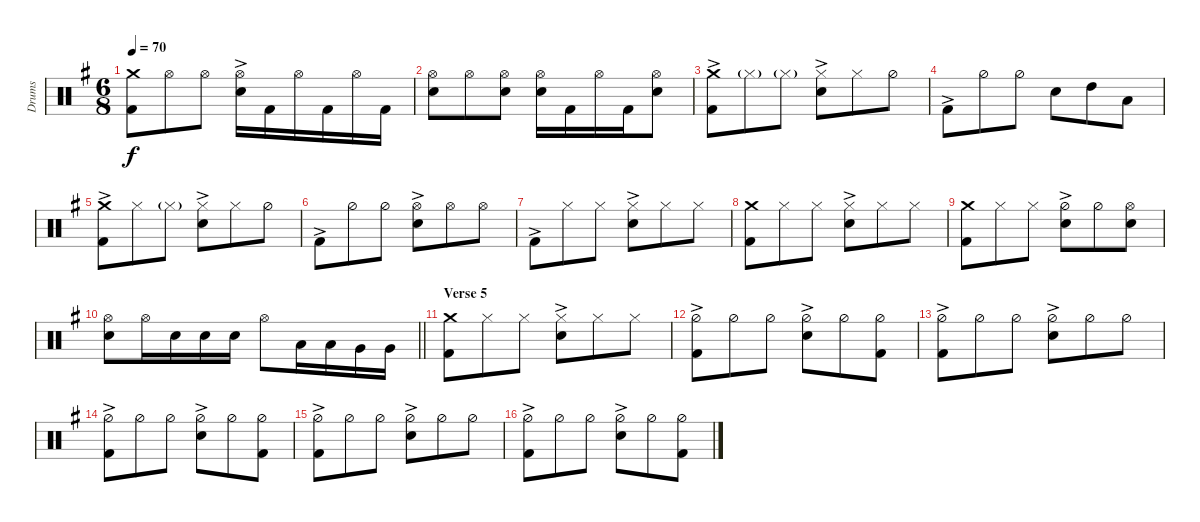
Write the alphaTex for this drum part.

\track ("Drums" "Drums") {instrument percussion}
\staff {score}
\articulation defaults
\ts (6 8)
\tempo 70
\clef neutral
\ks g
("Crash medium (hit)" "Kick (hit) 2").8{dy f} "Hi-Hat (open)".8 "Hi-Hat (open)".8 ("Hi-Hat (open)"{ac} "Snare (hit) 2").16 "Kick (hit) 2".16 "Hi-Hat (open)".16 "Kick (hit) 2".16 "Hi-Hat (open)".16 "Kick (hit) 2".16 |
("Hi-Hat (open)" "Snare (hit) 2").8 "Hi-Hat (open)".8 ("Hi-Hat (open)" "Snare (hit) 2").8 ("Hi-Hat (open)" "Snare (hit) 2").16 "Kick (hit) 2".16 "Hi-Hat (open)".16 "Kick (hit) 2".16 ("Hi-Hat (open)" "Snare (hit) 2").8 |
("Crash medium (hit)" "Kick (hit) 2"{ac}).8 "Hi-Hat (closed)"{g}.8 "Hi-Hat (closed)"{g}.8 ("Hi-Hat (closed)"{ac} "Snare (hit) 2").8 "Hi-Hat (closed)".8 "Hi-Hat (half)".8 |
"Kick (hit) 2"{ac}.8 "Hi-Hat (half)".8 "Hi-Hat (half)".8 "Snare (hit) 2".8 "High Tom (hit)".8 "Low Tom (hit)".8 |
("Crash medium (hit)"{ac} "Kick (hit) 2").8 "Hi-Hat (closed)".8 "Hi-Hat (closed)"{g}.8 ("Hi-Hat (closed)"{ac} "Snare (hit) 2").8 "Hi-Hat (closed)".8 "Hi-Hat (half)".8 |
"Kick (hit) 2"{ac}.8 "Hi-Hat (half)".8 "Hi-Hat (half)".8 ("Hi-Hat (open)"{ac} "Snare (hit) 2").8 "Hi-Hat (open)".8 "Hi-Hat (open)".8 |
"Kick (hit) 2"{ac}.8 "Hi-Hat (closed)".8 "Hi-Hat (closed)".8 ("Hi-Hat (closed)"{ac} "Snare (hit) 2").8 "Hi-Hat (closed)".8 "Hi-Hat (closed)".8 |
("Crash medium (hit)" "Kick (hit) 2").8 "Hi-Hat (closed)".8 "Hi-Hat (closed)".8 ("Hi-Hat (closed)"{ac} "Snare (hit) 2").8 "Hi-Hat (closed)".8 "Hi-Hat (closed)".8 |
("Crash medium (hit)" "Kick (hit) 2").8 "Hi-Hat (closed)".8 "Hi-Hat (closed)".8 ("Snare (hit) 2"{ac} "Hi-Hat (half)").8 "Hi-Hat (half)".8 ("Hi-Hat (open)" "Snare (hit) 2").8 |
\barLineRight lightlight
("Hi-Hat (open)" "Snare (hit) 2").8 "Hi-Hat (open)".16 "Snare (hit) 2".16 "Snare (hit) 2".16 "Snare (hit) 2".16 "Hi-Hat (open)".8 "Low Tom (hit)".16 "Low Tom (hit)".16 "Very Low Tom (hit)".16 "Very Low Tom (hit)".16 |
\section ("" "Verse 5")
("Crash medium (hit)" "Kick (hit) 2").8 "Hi-Hat (closed)".8 "Hi-Hat (closed)".8 ("Hi-Hat (closed)" "Snare (hit) 2"{ac}).8 "Hi-Hat (closed)".8 "Hi-Hat (closed)".8 |
("Hi-Hat (half)" "Kick (hit) 2"{ac}).8 "Hi-Hat (half)".8 "Hi-Hat (half)".8 ("Snare (hit) 2"{ac} "Hi-Hat (half)").8 "Hi-Hat (half)".8 ("Kick (hit) 2" "Hi-Hat (half)").8 |
("Hi-Hat (half)" "Kick (hit) 2"{ac}).8 "Hi-Hat (half)".8 "Hi-Hat (half)".8 ("Snare (hit) 2"{ac} "Hi-Hat (half)").8 "Hi-Hat (half)".8 "Hi-Hat (half)".8 |
("Hi-Hat (half)" "Kick (hit) 2"{ac}).8 "Hi-Hat (half)".8 "Hi-Hat (half)".8 ("Snare (hit) 2"{ac} "Hi-Hat (half)").8 "Hi-Hat (half)".8 ("Hi-Hat (half)" "Kick (hit) 2").8 |
("Hi-Hat (half)" "Kick (hit) 2"{ac}).8 "Hi-Hat (half)".8 "Hi-Hat (half)".8 ("Snare (hit) 2"{ac} "Hi-Hat (half)").8 "Hi-Hat (half)".8 "Hi-Hat (half)".8 |
("Hi-Hat (half)" "Kick (hit) 2"{ac}).8 "Hi-Hat (half)".8 "Hi-Hat (half)".8 ("Snare (hit) 2"{ac} "Hi-Hat (half)").8 "Hi-Hat (half)".8 ("Hi-Hat (half)" "Kick (hit) 2").8
